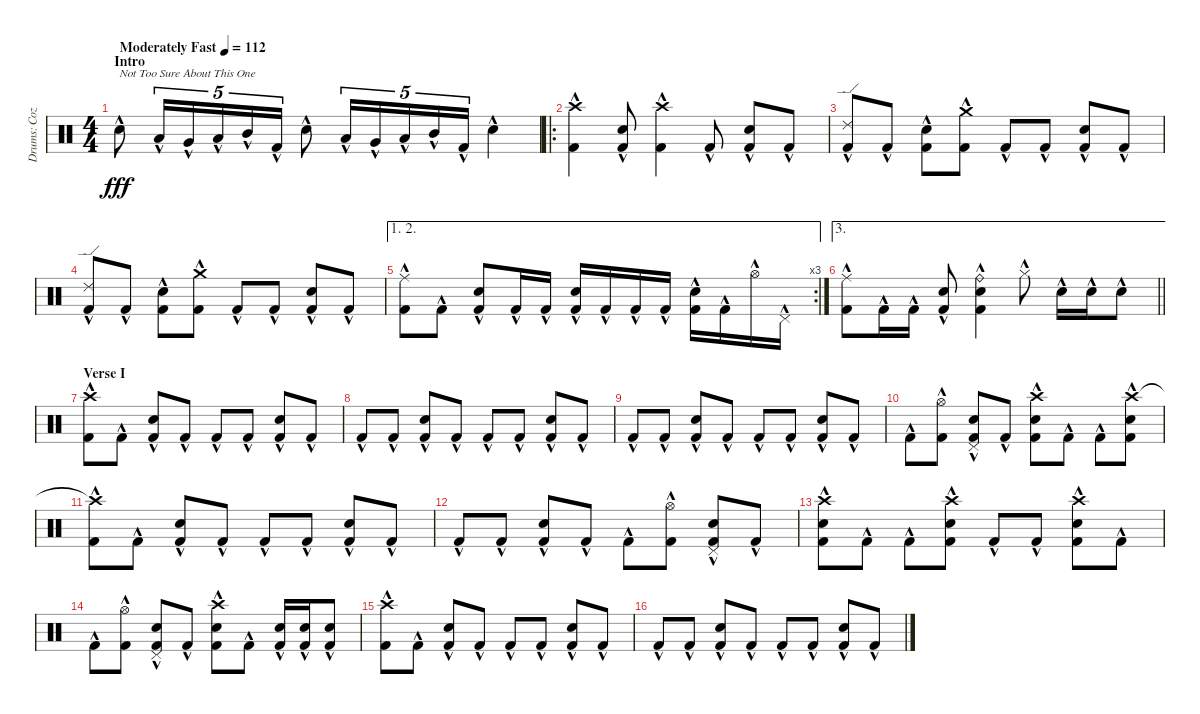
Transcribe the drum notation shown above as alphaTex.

\track ("Drums: Cozy" "Drums: Coz") {instrument percussion}
\staff {score}
\articulation defaults
\ts (4 4)
\section ("" "Intro")
\tempo (112 "Moderately Fast")
\clef neutral
\ks c "Snare (hit) 2"{hac}.8{txt "Not Too Sure About This One" dy fff} "Low Tom (hit)"{hac}.16{tu (5 4)} "Very Low Tom (hit)"{hac}.16{tu (5 4)} "Low Tom (hit)"{hac}.16{tu (5 4)} "Mid Tom (hit)"{hac}.16{tu (5 4)} "Kick (hit) 2"{hac}.16{tu (5 4)} "Snare (hit) 2"{hac}.8 "Low Tom (hit)"{hac}.16{tu (5 4)} "Very Low Tom (hit)"{hac}.16{tu (5 4)} "Low Tom (hit)"{hac}.16{tu (5 4)} "Mid Tom (hit)"{hac}.16{tu (5 4)} "Kick (hit) 2"{hac}.16{tu (5 4)} "Snare (hit) 2"{hac}.4
|
\ro
("Crash high (hit)"{hac} "Kick (hit) 2"{hac}).4 ("Snare (hit) 2"{hac} "Kick (hit) 2"{hac}).8 ("Crash high (hit)"{hac} "Kick (hit) 2"{hac}).4 "Kick (hit) 2"{hac}.8 ("Snare (hit) 2"{hac} "Kick (hit) 2"{hac}).8 "Kick (hit) 2"{hac}.8 |
("Ride (edge) 2"{hac} "Kick (hit) 2"{hac}).8 "Kick (hit) 2"{hac}.8 ("Snare (hit) 2"{hac} "Kick (hit) 2"{hac}).8 ("Crash medium (hit)"{hac} "Kick (hit) 2"{hac}).8 "Kick (hit) 2"{hac}.8 "Kick (hit) 2"{hac}.8 ("Snare (hit) 2"{hac} "Kick (hit) 2"{hac}).8 "Kick (hit) 2"{hac}.8 |
("Ride (edge) 2"{hac} "Kick (hit) 2"{hac}).8 "Kick (hit) 2"{hac}.8 ("Snare (hit) 2"{hac} "Kick (hit) 2"{hac}).8 ("Crash medium (hit)"{hac} "Kick (hit) 2"{hac}).8 "Kick (hit) 2"{hac}.8 "Kick (hit) 2"{hac}.8 ("Snare (hit) 2"{hac} "Kick (hit) 2"{hac}).8 "Kick (hit) 2"{hac}.8 |
\ae (1 2)
\rc 3
("Ride (middle)"{hac} "Kick (hit) 2"{hac}).8 "Kick (hit) 2"{hac}.8 ("Snare (hit) 2"{hac} "Kick (hit) 2"{hac}).8 "Kick (hit) 2"{hac}.16 "Kick (hit) 2"{hac}.16 ("Snare (hit) 2"{hac} "Kick (hit) 2"{hac}).16 "Kick (hit) 2"{hac}.16 "Kick (hit) 2"{hac}.16 "Kick (hit) 2"{hac}.16 ("Snare (hit) 2"{hac} "Kick (hit) 2"{hac}).16 "Kick (hit) 2"{hac}.16 "Hi-Hat (open)"{hac}.16 "Pedal Hi-Hat (hit)"{hac}.16 |
\ae 3
\barLineRight lightlight
("Ride (middle)"{hac} "Kick (hit) 2"{hac}).8 "Kick (hit) 2"{hac}.16 "Kick (hit) 2"{hac}.16 ("Snare (hit) 2"{hac} "Kick (hit) 2"{hac}).8 ("Ride (bell)"{hac} "Snare (hit) 2"{hac} "Kick (hit) 2"{hac}).4 "Hi-Hat (closed)"{hac}.8 "Snare (hit) 2"{hac}.16 "Snare (hit) 2"{hac}.16 "Snare (hit) 2"{hac}.8 |
\section ("" "Verse I")
("Crash high (hit)"{hac} "Kick (hit) 2"{hac}).8 "Kick (hit) 2"{hac}.8 ("Snare (hit) 2"{hac} "Kick (hit) 2"{hac}).8 "Kick (hit) 2"{hac}.8 "Kick (hit) 2"{hac}.8 "Kick (hit) 2"{hac}.8 ("Snare (hit) 2"{hac} "Kick (hit) 2"{hac}).8 "Kick (hit) 2"{hac}.8 |
"Kick (hit) 2"{hac}.8 "Kick (hit) 2"{hac}.8 ("Snare (hit) 2"{hac} "Kick (hit) 2"{hac}).8 "Kick (hit) 2"{hac}.8 "Kick (hit) 2"{hac}.8 "Kick (hit) 2"{hac}.8 ("Snare (hit) 2"{hac} "Kick (hit) 2"{hac}).8 "Kick (hit) 2"{hac}.8 |
"Kick (hit) 2"{hac}.8 "Kick (hit) 2"{hac}.8 ("Snare (hit) 2"{hac} "Kick (hit) 2"{hac}).8 "Kick (hit) 2"{hac}.8 "Kick (hit) 2"{hac}.8 "Kick (hit) 2"{hac}.8 ("Snare (hit) 2"{hac} "Kick (hit) 2"{hac}).8 "Kick (hit) 2"{hac}.8 |
"Kick (hit) 2"{hac}.8 ("Hi-Hat (open)"{hac} "Kick (hit) 2"{hac}).8 ("Pedal Hi-Hat (hit)"{hac} "Snare (hit) 2"{hac} "Kick (hit) 2"{hac}).8 "Kick (hit) 2"{hac}.8 ("Crash high (hit)"{hac} "Snare (hit) 2"{hac} "Kick (hit) 2"{hac}).8 "Kick (hit) 2"{hac}.8 "Kick (hit) 2"{hac}.8 ("Crash high (hit)"{hac} "Snare (hit) 2"{hac} "Kick (hit) 2"{hac}).8 |
("Crash high (hit)"{t} "Kick (hit) 2"{hac}).8 "Kick (hit) 2"{hac}.8 ("Snare (hit) 2"{hac} "Kick (hit) 2"{hac}).8 "Kick (hit) 2"{hac}.8 "Kick (hit) 2"{hac}.8 "Kick (hit) 2"{hac}.8 ("Snare (hit) 2"{hac} "Kick (hit) 2"{hac}).8 "Kick (hit) 2"{hac}.8 |
"Kick (hit) 2"{hac}.8 "Kick (hit) 2"{hac}.8 ("Snare (hit) 2"{hac} "Kick (hit) 2"{hac}).8 "Kick (hit) 2"{hac}.8 "Kick (hit) 2"{hac}.8 ("Hi-Hat (open)"{hac} "Kick (hit) 2"{hac}).8 ("Pedal Hi-Hat (hit)"{hac} "Snare (hit) 2"{hac} "Kick (hit) 2"{hac}).8 "Kick (hit) 2"{hac}.8 |
("Crash high (hit)"{hac} "Snare (hit) 2"{hac} "Kick (hit) 2"{hac}).8 "Kick (hit) 2"{hac}.8 "Kick (hit) 2"{hac}.8 ("Crash high (hit)"{hac} "Snare (hit) 2"{hac} "Kick (hit) 2"{hac}).8 "Kick (hit) 2"{hac}.8 "Kick (hit) 2"{hac}.8 ("Crash high (hit)"{hac} "Snare (hit) 2"{hac} "Kick (hit) 2"{hac}).8 "Kick (hit) 2"{hac}.8 |
"Kick (hit) 2"{hac}.8 ("Hi-Hat (open)"{hac} "Kick (hit) 2"{hac}).8 ("Pedal Hi-Hat (hit)"{hac} "Snare (hit) 2"{hac} "Kick (hit) 2"{hac}).8 "Kick (hit) 2"{hac}.8 ("Crash high (hit)"{hac} "Snare (hit) 2"{hac} "Kick (hit) 2"{hac}).8 "Kick (hit) 2"{hac}.8 ("Snare (hit) 2"{hac} "Kick (hit) 2"{hac}).16 ("Snare (hit) 2"{hac} "Kick (hit) 2"{hac}).16 ("Snare (hit) 2"{hac} "Kick (hit) 2"{hac}).8 |
("Crash high (hit)"{hac} "Kick (hit) 2"{hac}).8 "Kick (hit) 2"{hac}.8 ("Snare (hit) 2"{hac} "Kick (hit) 2"{hac}).8 "Kick (hit) 2"{hac}.8 "Kick (hit) 2"{hac}.8 "Kick (hit) 2"{hac}.8 ("Snare (hit) 2"{hac} "Kick (hit) 2"{hac}).8 "Kick (hit) 2"{hac}.8 |
"Kick (hit) 2"{hac}.8 "Kick (hit) 2"{hac}.8 ("Snare (hit) 2"{hac} "Kick (hit) 2"{hac}).8 "Kick (hit) 2"{hac}.8 "Kick (hit) 2"{hac}.8 "Kick (hit) 2"{hac}.8 ("Snare (hit) 2"{hac} "Kick (hit) 2"{hac}).8 "Kick (hit) 2"{hac}.8
